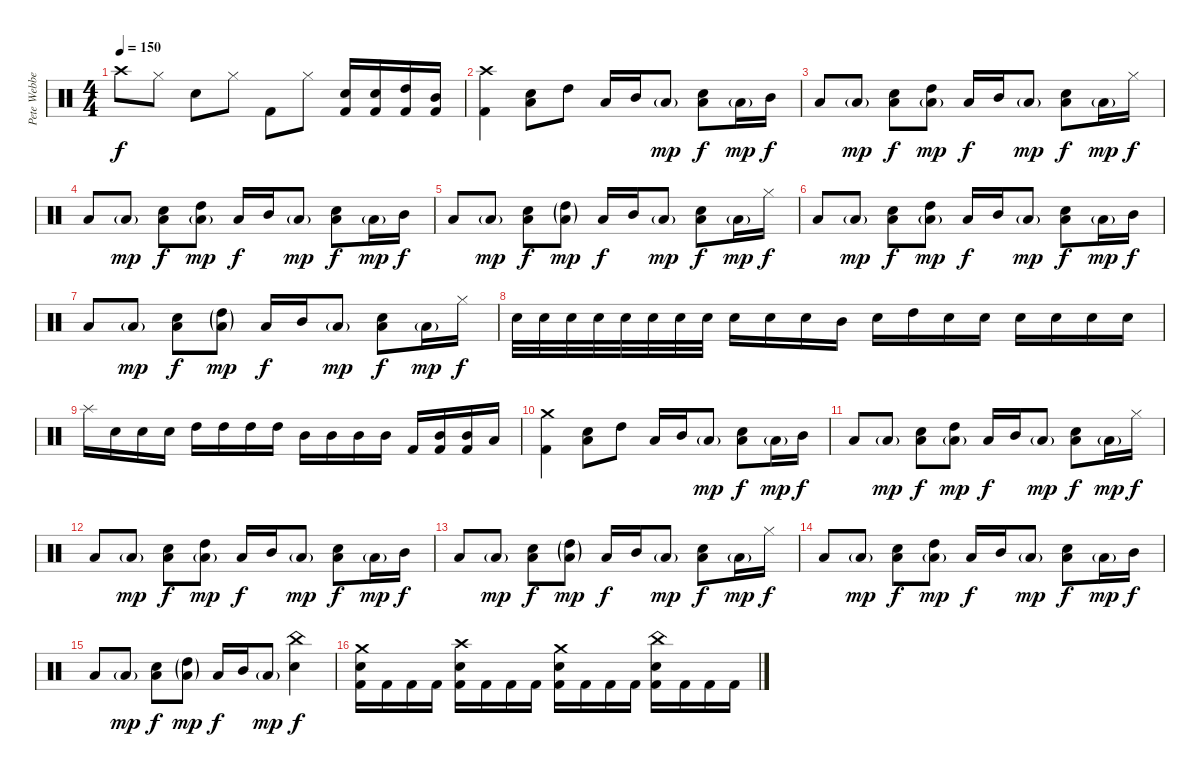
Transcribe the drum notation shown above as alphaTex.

\track ("Pete Webber" "Pete Webbe") {instrument percussion}
\staff {score}
\articulation defaults
\ts (4 4)
\tempo 150
\clef neutral
\ks c "Crash high (hit)".8{dy f} "Hi-Hat (closed)".8 "Electric Snare (hit)".8 "Hi-Hat (closed)".8 "Kick (hit) 2".8 "Hi-Hat (closed)".8
("Electric Snare (hit)" "Kick (hit) 2").16 ("Electric Snare (hit)" "Kick (hit) 2").16 ("High Tom (hit)" "Kick (hit) 2").16 ("Mid Tom (hit)" "Kick (hit) 2").16 |
("Kick (hit) 2" "Crash high (hit)").4 ("Electric Snare (hit)" "Low Floor Tom (hit)").8 "High Tom (hit)".8 "Low Floor Tom (hit)".16 "Mid Tom (hit)".16 "Low Floor Tom (hit)"{g}.8{dy mp} ("Electric Snare (hit)" "Low Floor Tom (hit)").8{dy f} "Low Floor Tom (hit)"{g}.16{dy mp} "Mid Tom (hit)".16{dy f} |
"Low Floor Tom (hit)".8 "Low Floor Tom (hit)"{g}.8{dy mp} ("Electric Snare (hit)" "Low Floor Tom (hit)").8{dy f} ("High Tom (hit)" "Low Floor Tom (hit)"{g}).8{dy mp} "Low Floor Tom (hit)".16{dy f} "Mid Tom (hit)".16 "Low Floor Tom (hit)"{g}.8{dy mp} ("Electric Snare (hit)" "Low Floor Tom (hit)").8{dy f} "Low Floor Tom (hit)"{g}.16{dy mp} "Hi-Hat (closed)".16{dy f} |
"Low Floor Tom (hit)".8 "Low Floor Tom (hit)"{g}.8{dy mp} ("Electric Snare (hit)" "Low Floor Tom (hit)").8{dy f} ("High Tom (hit)" "Low Floor Tom (hit)"{g}).8{dy mp} "Low Floor Tom (hit)".16{dy f} "Mid Tom (hit)".16 "Low Floor Tom (hit)"{g}.8{dy mp} ("Electric Snare (hit)" "Low Floor Tom (hit)").8{dy f} "Low Floor Tom (hit)"{g}.16{dy mp} "Mid Tom (hit)".16{dy f} |
"Low Floor Tom (hit)".8 "Low Floor Tom (hit)"{g}.8{dy mp} ("Electric Snare (hit)" "Low Floor Tom (hit)").8{dy f} ("High Tom (hit)"{g} "Low Floor Tom (hit)"{g}).8{dy mp} "Low Floor Tom (hit)".16{dy f} "Mid Tom (hit)".16 "Low Floor Tom (hit)"{g}.8{dy mp} ("Electric Snare (hit)" "Low Floor Tom (hit)").8{dy f} "Low Floor Tom (hit)"{g}.16{dy mp} "Hi-Hat (closed)".16{dy f} |
"Low Floor Tom (hit)".8 "Low Floor Tom (hit)"{g}.8{dy mp} ("Electric Snare (hit)" "Low Floor Tom (hit)").8{dy f} ("High Tom (hit)" "Low Floor Tom (hit)"{g}).8{dy mp} "Low Floor Tom (hit)".16{dy f} "Mid Tom (hit)".16 "Low Floor Tom (hit)"{g}.8{dy mp} ("Electric Snare (hit)" "Low Floor Tom (hit)").8{dy f} "Low Floor Tom (hit)"{g}.16{dy mp} "Mid Tom (hit)".16{dy f} |
"Low Floor Tom (hit)".8 "Low Floor Tom (hit)"{g}.8{dy mp} ("Electric Snare (hit)" "Low Floor Tom (hit)").8{dy f} ("High Tom (hit)"{g} "Low Floor Tom (hit)"{g}).8{dy mp} "Low Floor Tom (hit)".16{dy f} "Mid Tom (hit)".16 "Low Floor Tom (hit)"{g}.8{dy mp} ("Electric Snare (hit)" "Low Floor Tom (hit)").8{dy f} "Low Floor Tom (hit)"{g}.16{dy mp} "Hi-Hat (closed)".16{dy f} |
"Electric Snare (hit)".32 "Electric Snare (hit)".32 "Electric Snare (hit)".32 "Electric Snare (hit)".32 "Electric Snare (hit)".32 "Electric Snare (hit)".32 "Electric Snare (hit)".32 "Electric Snare (hit)".32 "Electric Snare (hit)".16 "Electric Snare (hit)".16 "Electric Snare (hit)".16 "Mid Tom (hit)".16 "Electric Snare (hit)".16 "High Tom (hit)".16 "Electric Snare (hit)".16 "Electric Snare (hit)".16 "Electric Snare (hit)".16 "Electric Snare (hit)".16 "Electric Snare (hit)".16 "Electric Snare (hit)".16 |
"Splash (hit)".16 "Electric Snare (hit)".16 "Electric Snare (hit)".16 "Electric Snare (hit)".16 "High Tom (hit)".16 "High Tom (hit)".16 "High Tom (hit)".16 "High Tom (hit)".16 "Mid Tom (hit)".16 "Mid Tom (hit)".16 "Mid Tom (hit)".16 "Mid Tom (hit)".16 "Kick (hit) 2".16 ("Mid Tom (hit)" "Kick (hit) 2").16 ("Mid Tom (hit)" "Kick (hit) 2").16 "Low Floor Tom (hit)".16 |
("Kick (hit) 2" "Crash medium (hit)").4 ("Electric Snare (hit)" "Low Floor Tom (hit)").8 "High Tom (hit)".8 "Low Floor Tom (hit)".16 "Mid Tom (hit)".16 "Low Floor Tom (hit)"{g}.8{dy mp} ("Electric Snare (hit)" "Low Floor Tom (hit)").8{dy f} "Low Floor Tom (hit)"{g}.16{dy mp} "Mid Tom (hit)".16{dy f} |
"Low Floor Tom (hit)".8 "Low Floor Tom (hit)"{g}.8{dy mp} ("Electric Snare (hit)" "Low Floor Tom (hit)").8{dy f} ("High Tom (hit)" "Low Floor Tom (hit)"{g}).8{dy mp} "Low Floor Tom (hit)".16{dy f} "Mid Tom (hit)".16 "Low Floor Tom (hit)"{g}.8{dy mp} ("Electric Snare (hit)" "Low Floor Tom (hit)").8{dy f} "Low Floor Tom (hit)"{g}.16{dy mp} "Hi-Hat (closed)".16{dy f} |
"Low Floor Tom (hit)".8 "Low Floor Tom (hit)"{g}.8{dy mp} ("Electric Snare (hit)" "Low Floor Tom (hit)").8{dy f} ("High Tom (hit)" "Low Floor Tom (hit)"{g}).8{dy mp} "Low Floor Tom (hit)".16{dy f} "Mid Tom (hit)".16 "Low Floor Tom (hit)"{g}.8{dy mp} ("Electric Snare (hit)" "Low Floor Tom (hit)").8{dy f} "Low Floor Tom (hit)"{g}.16{dy mp} "Mid Tom (hit)".16{dy f} |
"Low Floor Tom (hit)".8 "Low Floor Tom (hit)"{g}.8{dy mp} ("Electric Snare (hit)" "Low Floor Tom (hit)").8{dy f} ("High Tom (hit)"{g} "Low Floor Tom (hit)"{g}).8{dy mp} "Low Floor Tom (hit)".16{dy f} "Mid Tom (hit)".16 "Low Floor Tom (hit)"{g}.8{dy mp} ("Electric Snare (hit)" "Low Floor Tom (hit)").8{dy f} "Low Floor Tom (hit)"{g}.16{dy mp} "Hi-Hat (closed)".16{dy f} |
"Low Floor Tom (hit)".8 "Low Floor Tom (hit)"{g}.8{dy mp} ("Electric Snare (hit)" "Low Floor Tom (hit)").8{dy f} ("High Tom (hit)" "Low Floor Tom (hit)"{g}).8{dy mp} "Low Floor Tom (hit)".16{dy f} "Mid Tom (hit)".16 "Low Floor Tom (hit)"{g}.8{dy mp} ("Electric Snare (hit)" "Low Floor Tom (hit)").8{dy f} "Low Floor Tom (hit)"{g}.16{dy mp} "Mid Tom (hit)".16{dy f} |
"Low Floor Tom (hit)".8 "Low Floor Tom (hit)"{g}.8{dy mp} ("Electric Snare (hit)" "Low Floor Tom (hit)").8{dy f} ("High Tom (hit)"{g} "Low Floor Tom (hit)"{g}).8{dy mp} "Low Floor Tom (hit)".16{dy f} "Mid Tom (hit)".16 "Low Floor Tom (hit)"{g}.8{dy mp} ("Electric Snare (hit)" "China (hit)").4{dy f} |
("Electric Snare (hit)" "Kick (hit) 2" "Crash medium (hit)").16 "Kick (hit) 2".16 "Kick (hit) 2".16 "Kick (hit) 2".16 ("Electric Snare (hit)" "Kick (hit) 2" "Crash high (hit)").16 "Kick (hit) 2".16 "Kick (hit) 2".16 "Kick (hit) 2".16 ("Electric Snare (hit)" "Kick (hit) 2" "Crash medium (hit)").16 "Kick (hit) 2".16 "Kick (hit) 2".16 "Kick (hit) 2".16 ("Electric Snare (hit)" "Kick (hit) 2" "China (hit)").16 "Kick (hit) 2".16 "Kick (hit) 2".16 "Kick (hit) 2".16
